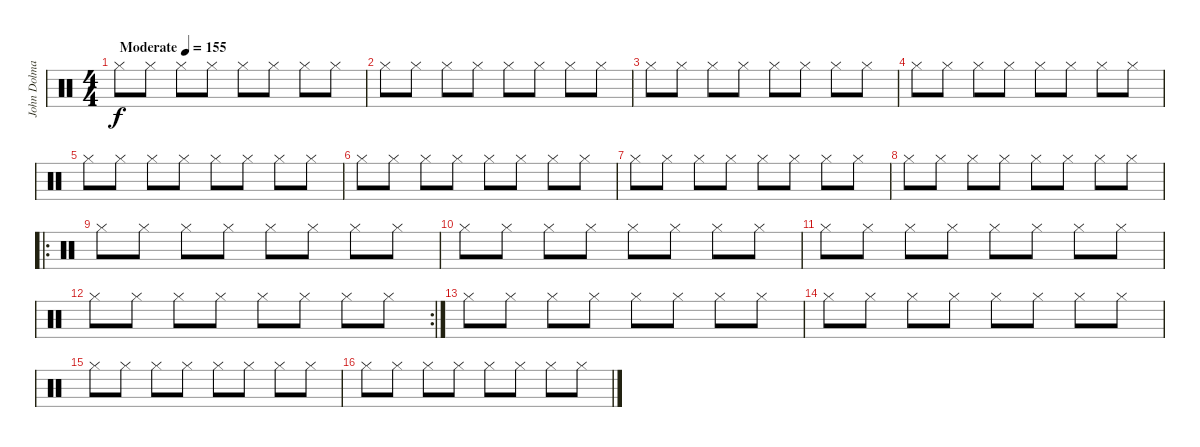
\track ("John Dolmayan - Drums" "John Dolma") {instrument percussion}
\staff {score}
\articulation defaults
\ts (4 4)
\tempo (155 "Moderate")
\clef neutral
\ks c "Hi-Hat (closed)".8{dy f} "Hi-Hat (closed)".8 "Hi-Hat (closed)".8 "Hi-Hat (closed)".8 "Hi-Hat (closed)".8 "Hi-Hat (closed)".8 "Hi-Hat (closed)".8 "Hi-Hat (closed)".8
|
"Hi-Hat (closed)".8 "Hi-Hat (closed)".8 "Hi-Hat (closed)".8 "Hi-Hat (closed)".8 "Hi-Hat (closed)".8 "Hi-Hat (closed)".8 "Hi-Hat (closed)".8 "Hi-Hat (closed)".8 |
"Hi-Hat (closed)".8 "Hi-Hat (closed)".8 "Hi-Hat (closed)".8 "Hi-Hat (closed)".8 "Hi-Hat (closed)".8 "Hi-Hat (closed)".8 "Hi-Hat (closed)".8 "Hi-Hat (closed)".8 |
"Hi-Hat (closed)".8 "Hi-Hat (closed)".8 "Hi-Hat (closed)".8 "Hi-Hat (closed)".8 "Hi-Hat (closed)".8 "Hi-Hat (closed)".8 "Hi-Hat (closed)".8 "Hi-Hat (closed)".8 |
"Hi-Hat (closed)".8 "Hi-Hat (closed)".8 "Hi-Hat (closed)".8 "Hi-Hat (closed)".8 "Hi-Hat (closed)".8 "Hi-Hat (closed)".8 "Hi-Hat (closed)".8 "Hi-Hat (closed)".8 |
"Hi-Hat (closed)".8 "Hi-Hat (closed)".8 "Hi-Hat (closed)".8 "Hi-Hat (closed)".8 "Hi-Hat (closed)".8 "Hi-Hat (closed)".8 "Hi-Hat (closed)".8 "Hi-Hat (closed)".8 |
"Hi-Hat (closed)".8 "Hi-Hat (closed)".8 "Hi-Hat (closed)".8 "Hi-Hat (closed)".8 "Hi-Hat (closed)".8 "Hi-Hat (closed)".8 "Hi-Hat (closed)".8 "Hi-Hat (closed)".8 |
"Hi-Hat (closed)".8 "Hi-Hat (closed)".8 "Hi-Hat (closed)".8 "Hi-Hat (closed)".8 "Hi-Hat (closed)".8 "Hi-Hat (closed)".8 "Hi-Hat (closed)".8 "Hi-Hat (closed)".8 |
\ro "Hi-Hat (closed)".8 "Hi-Hat (closed)".8 "Hi-Hat (closed)".8 "Hi-Hat (closed)".8 "Hi-Hat (closed)".8 "Hi-Hat (closed)".8 "Hi-Hat (closed)".8 "Hi-Hat (closed)".8
|
"Hi-Hat (closed)".8 "Hi-Hat (closed)".8 "Hi-Hat (closed)".8 "Hi-Hat (closed)".8 "Hi-Hat (closed)".8 "Hi-Hat (closed)".8 "Hi-Hat (closed)".8 "Hi-Hat (closed)".8 |
"Hi-Hat (closed)".8 "Hi-Hat (closed)".8 "Hi-Hat (closed)".8 "Hi-Hat (closed)".8 "Hi-Hat (closed)".8 "Hi-Hat (closed)".8 "Hi-Hat (closed)".8 "Hi-Hat (closed)".8 |
\rc 2 "Hi-Hat (closed)".8 "Hi-Hat (closed)".8 "Hi-Hat (closed)".8 "Hi-Hat (closed)".8 "Hi-Hat (closed)".8 "Hi-Hat (closed)".8 "Hi-Hat (closed)".8 "Hi-Hat (closed)".8
|
"Hi-Hat (closed)".8 "Hi-Hat (closed)".8 "Hi-Hat (closed)".8 "Hi-Hat (closed)".8 "Hi-Hat (closed)".8 "Hi-Hat (closed)".8 "Hi-Hat (closed)".8 "Hi-Hat (closed)".8 |
"Hi-Hat (closed)".8 "Hi-Hat (closed)".8 "Hi-Hat (closed)".8 "Hi-Hat (closed)".8 "Hi-Hat (closed)".8 "Hi-Hat (closed)".8 "Hi-Hat (closed)".8 "Hi-Hat (closed)".8 |
"Hi-Hat (closed)".8 "Hi-Hat (closed)".8 "Hi-Hat (closed)".8 "Hi-Hat (closed)".8 "Hi-Hat (closed)".8 "Hi-Hat (closed)".8 "Hi-Hat (closed)".8 "Hi-Hat (closed)".8 |
"Hi-Hat (closed)".8 "Hi-Hat (closed)".8 "Hi-Hat (closed)".8 "Hi-Hat (closed)".8 "Hi-Hat (closed)".8 "Hi-Hat (closed)".8 "Hi-Hat (closed)".8 "Hi-Hat (closed)".8
